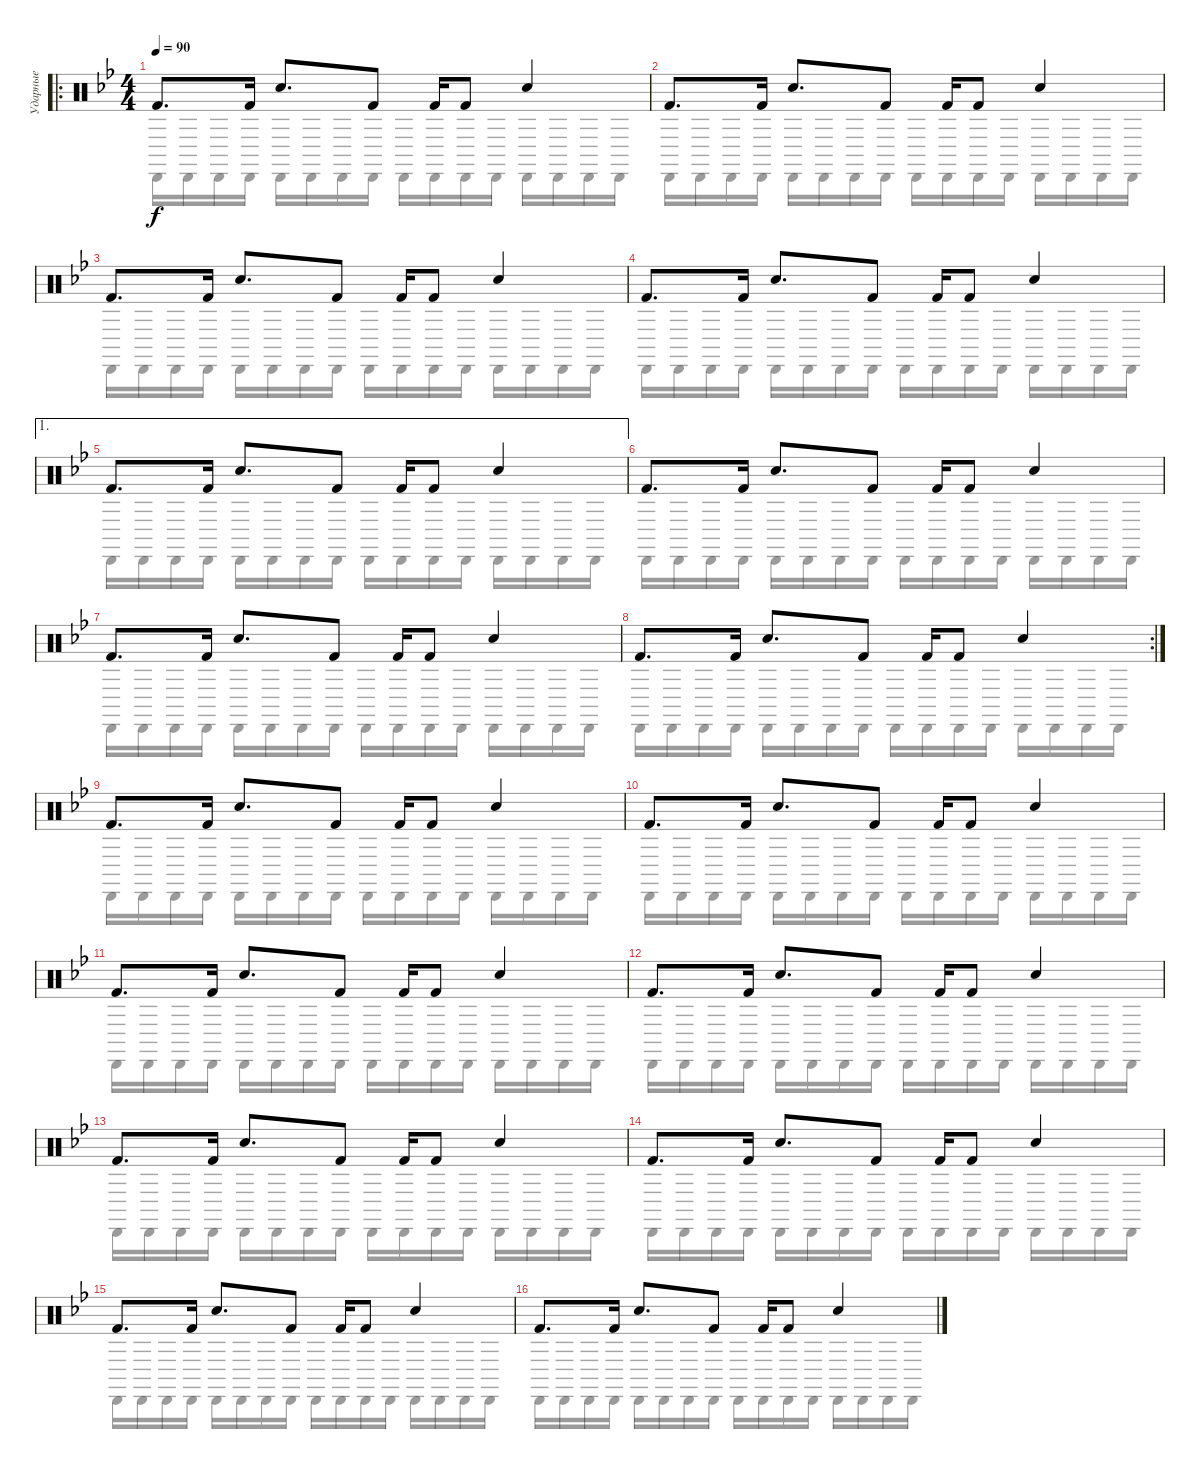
\track ("Ударные" "Ударные") {instrument percussion}
\staff {score}
\articulation defaults
\voice
\ro
\ts (4 4)
\tempo 90
\clef neutral
\ks bb "Kick (hit) 2".8{d dy f} "Kick (hit) 2".16 "Hand Clap (hit)".8{d} "Kick (hit) 2".8 "Kick (hit) 2".16 "Kick (hit) 2".8 "Hand Clap (hit)".4
|
"Kick (hit) 2".8{d} "Kick (hit) 2".16 "Hand Clap (hit)".8{d} "Kick (hit) 2".8 "Kick (hit) 2".16 "Kick (hit) 2".8 "Hand Clap (hit)".4 |
"Kick (hit) 2".8{d} "Kick (hit) 2".16 "Hand Clap (hit)".8{d} "Kick (hit) 2".8 "Kick (hit) 2".16 "Kick (hit) 2".8 "Hand Clap (hit)".4 |
"Kick (hit) 2".8{d} "Kick (hit) 2".16 "Hand Clap (hit)".8{d} "Kick (hit) 2".8 "Kick (hit) 2".16 "Kick (hit) 2".8 "Hand Clap (hit)".4 |
\ae 1 "Kick (hit) 2".8{d} "Kick (hit) 2".16 "Hand Clap (hit)".8{d} "Kick (hit) 2".8 "Kick (hit) 2".16 "Kick (hit) 2".8 "Hand Clap (hit)".4
|
"Kick (hit) 2".8{d} "Kick (hit) 2".16 "Hand Clap (hit)".8{d} "Kick (hit) 2".8 "Kick (hit) 2".16 "Kick (hit) 2".8 "Hand Clap (hit)".4 |
"Kick (hit) 2".8{d} "Kick (hit) 2".16 "Hand Clap (hit)".8{d} "Kick (hit) 2".8 "Kick (hit) 2".16 "Kick (hit) 2".8 "Hand Clap (hit)".4 |
\rc 2 "Kick (hit) 2".8{d} "Kick (hit) 2".16 "Hand Clap (hit)".8{d} "Kick (hit) 2".8 "Kick (hit) 2".16 "Kick (hit) 2".8 "Hand Clap (hit)".4
|
"Kick (hit) 2".8{d} "Kick (hit) 2".16 "Hand Clap (hit)".8{d} "Kick (hit) 2".8 "Kick (hit) 2".16 "Kick (hit) 2".8 "Hand Clap (hit)".4 |
"Kick (hit) 2".8{d} "Kick (hit) 2".16 "Hand Clap (hit)".8{d} "Kick (hit) 2".8 "Kick (hit) 2".16 "Kick (hit) 2".8 "Hand Clap (hit)".4 |
"Kick (hit) 2".8{d} "Kick (hit) 2".16 "Hand Clap (hit)".8{d} "Kick (hit) 2".8 "Kick (hit) 2".16 "Kick (hit) 2".8 "Hand Clap (hit)".4 |
"Kick (hit) 2".8{d} "Kick (hit) 2".16 "Hand Clap (hit)".8{d} "Kick (hit) 2".8 "Kick (hit) 2".16 "Kick (hit) 2".8 "Hand Clap (hit)".4 |
"Kick (hit) 2".8{d} "Kick (hit) 2".16 "Hand Clap (hit)".8{d} "Kick (hit) 2".8 "Kick (hit) 2".16 "Kick (hit) 2".8 "Hand Clap (hit)".4 |
"Kick (hit) 2".8{d} "Kick (hit) 2".16 "Hand Clap (hit)".8{d} "Kick (hit) 2".8 "Kick (hit) 2".16 "Kick (hit) 2".8 "Hand Clap (hit)".4 |
"Kick (hit) 2".8{d} "Kick (hit) 2".16 "Hand Clap (hit)".8{d} "Kick (hit) 2".8 "Kick (hit) 2".16 "Kick (hit) 2".8 "Hand Clap (hit)".4 |
"Kick (hit) 2".8{d} "Kick (hit) 2".16 "Hand Clap (hit)".8{d} "Kick (hit) 2".8 "Kick (hit) 2".16 "Kick (hit) 2".8 "Hand Clap (hit)".4
\voice
\clef neutral
\ottava regular
\simile none
\ks bb "Cabasa (hit)".16{dy f} "Cabasa (hit)".16 "Cabasa (hit)".16 "Cabasa (hit)".16 "Cabasa (hit)".16 "Cabasa (hit)".16 "Cabasa (hit)".16 "Cabasa (hit)".16 "Cabasa (hit)".16 "Cabasa (hit)".16 "Cabasa (hit)".16 "Cabasa (hit)".16 "Cabasa (hit)".16 "Cabasa (hit)".16 "Cabasa (hit)".16 "Cabasa (hit)".16
|
"Cabasa (hit)".16 "Cabasa (hit)".16 "Cabasa (hit)".16 "Cabasa (hit)".16 "Cabasa (hit)".16 "Cabasa (hit)".16 "Cabasa (hit)".16 "Cabasa (hit)".16 "Cabasa (hit)".16 "Cabasa (hit)".16 "Cabasa (hit)".16 "Cabasa (hit)".16 "Cabasa (hit)".16 "Cabasa (hit)".16 "Cabasa (hit)".16 "Cabasa (hit)".16 |
"Cabasa (hit)".16 "Cabasa (hit)".16 "Cabasa (hit)".16 "Cabasa (hit)".16 "Cabasa (hit)".16 "Cabasa (hit)".16 "Cabasa (hit)".16 "Cabasa (hit)".16 "Cabasa (hit)".16 "Cabasa (hit)".16 "Cabasa (hit)".16 "Cabasa (hit)".16 "Cabasa (hit)".16 "Cabasa (hit)".16 "Cabasa (hit)".16 "Cabasa (hit)".16 |
"Cabasa (hit)".16 "Cabasa (hit)".16 "Cabasa (hit)".16 "Cabasa (hit)".16 "Cabasa (hit)".16 "Cabasa (hit)".16 "Cabasa (hit)".16 "Cabasa (hit)".16 "Cabasa (hit)".16 "Cabasa (hit)".16 "Cabasa (hit)".16 "Cabasa (hit)".16 "Cabasa (hit)".16 "Cabasa (hit)".16 "Cabasa (hit)".16 "Cabasa (hit)".16 |
"Cabasa (hit)".16 "Cabasa (hit)".16 "Cabasa (hit)".16 "Cabasa (hit)".16 "Cabasa (hit)".16 "Cabasa (hit)".16 "Cabasa (hit)".16 "Cabasa (hit)".16 "Cabasa (hit)".16 "Cabasa (hit)".16 "Cabasa (hit)".16 "Cabasa (hit)".16 "Cabasa (hit)".16 "Cabasa (hit)".16 "Cabasa (hit)".16 "Cabasa (hit)".16 |
"Cabasa (hit)".16 "Cabasa (hit)".16 "Cabasa (hit)".16 "Cabasa (hit)".16 "Cabasa (hit)".16 "Cabasa (hit)".16 "Cabasa (hit)".16 "Cabasa (hit)".16 "Cabasa (hit)".16 "Cabasa (hit)".16 "Cabasa (hit)".16 "Cabasa (hit)".16 "Cabasa (hit)".16 "Cabasa (hit)".16 "Cabasa (hit)".16 "Cabasa (hit)".16 |
"Cabasa (hit)".16 "Cabasa (hit)".16 "Cabasa (hit)".16 "Cabasa (hit)".16 "Cabasa (hit)".16 "Cabasa (hit)".16 "Cabasa (hit)".16 "Cabasa (hit)".16 "Cabasa (hit)".16 "Cabasa (hit)".16 "Cabasa (hit)".16 "Cabasa (hit)".16 "Cabasa (hit)".16 "Cabasa (hit)".16 "Cabasa (hit)".16 "Cabasa (hit)".16 |
"Cabasa (hit)".16 "Cabasa (hit)".16 "Cabasa (hit)".16 "Cabasa (hit)".16 "Cabasa (hit)".16 "Cabasa (hit)".16 "Cabasa (hit)".16 "Cabasa (hit)".16 "Cabasa (hit)".16 "Cabasa (hit)".16 "Cabasa (hit)".16 "Cabasa (hit)".16 "Cabasa (hit)".16 "Cabasa (hit)".16 "Cabasa (hit)".16 "Cabasa (hit)".16 |
"Cabasa (hit)".16 "Cabasa (hit)".16 "Cabasa (hit)".16 "Cabasa (hit)".16 "Cabasa (hit)".16 "Cabasa (hit)".16 "Cabasa (hit)".16 "Cabasa (hit)".16 "Cabasa (hit)".16 "Cabasa (hit)".16 "Cabasa (hit)".16 "Cabasa (hit)".16 "Cabasa (hit)".16 "Cabasa (hit)".16 "Cabasa (hit)".16 "Cabasa (hit)".16 |
"Cabasa (hit)".16 "Cabasa (hit)".16 "Cabasa (hit)".16 "Cabasa (hit)".16 "Cabasa (hit)".16 "Cabasa (hit)".16 "Cabasa (hit)".16 "Cabasa (hit)".16 "Cabasa (hit)".16 "Cabasa (hit)".16 "Cabasa (hit)".16 "Cabasa (hit)".16 "Cabasa (hit)".16 "Cabasa (hit)".16 "Cabasa (hit)".16 "Cabasa (hit)".16 |
"Cabasa (hit)".16 "Cabasa (hit)".16 "Cabasa (hit)".16 "Cabasa (hit)".16 "Cabasa (hit)".16 "Cabasa (hit)".16 "Cabasa (hit)".16 "Cabasa (hit)".16 "Cabasa (hit)".16 "Cabasa (hit)".16 "Cabasa (hit)".16 "Cabasa (hit)".16 "Cabasa (hit)".16 "Cabasa (hit)".16 "Cabasa (hit)".16 "Cabasa (hit)".16 |
"Cabasa (hit)".16 "Cabasa (hit)".16 "Cabasa (hit)".16 "Cabasa (hit)".16 "Cabasa (hit)".16 "Cabasa (hit)".16 "Cabasa (hit)".16 "Cabasa (hit)".16 "Cabasa (hit)".16 "Cabasa (hit)".16 "Cabasa (hit)".16 "Cabasa (hit)".16 "Cabasa (hit)".16 "Cabasa (hit)".16 "Cabasa (hit)".16 "Cabasa (hit)".16 |
"Cabasa (hit)".16 "Cabasa (hit)".16 "Cabasa (hit)".16 "Cabasa (hit)".16 "Cabasa (hit)".16 "Cabasa (hit)".16 "Cabasa (hit)".16 "Cabasa (hit)".16 "Cabasa (hit)".16 "Cabasa (hit)".16 "Cabasa (hit)".16 "Cabasa (hit)".16 "Cabasa (hit)".16 "Cabasa (hit)".16 "Cabasa (hit)".16 "Cabasa (hit)".16 |
"Cabasa (hit)".16 "Cabasa (hit)".16 "Cabasa (hit)".16 "Cabasa (hit)".16 "Cabasa (hit)".16 "Cabasa (hit)".16 "Cabasa (hit)".16 "Cabasa (hit)".16 "Cabasa (hit)".16 "Cabasa (hit)".16 "Cabasa (hit)".16 "Cabasa (hit)".16 "Cabasa (hit)".16 "Cabasa (hit)".16 "Cabasa (hit)".16 "Cabasa (hit)".16 |
"Cabasa (hit)".16 "Cabasa (hit)".16 "Cabasa (hit)".16 "Cabasa (hit)".16 "Cabasa (hit)".16 "Cabasa (hit)".16 "Cabasa (hit)".16 "Cabasa (hit)".16 "Cabasa (hit)".16 "Cabasa (hit)".16 "Cabasa (hit)".16 "Cabasa (hit)".16 "Cabasa (hit)".16 "Cabasa (hit)".16 "Cabasa (hit)".16 "Cabasa (hit)".16 |
"Cabasa (hit)".16 "Cabasa (hit)".16 "Cabasa (hit)".16 "Cabasa (hit)".16 "Cabasa (hit)".16 "Cabasa (hit)".16 "Cabasa (hit)".16 "Cabasa (hit)".16 "Cabasa (hit)".16 "Cabasa (hit)".16 "Cabasa (hit)".16 "Cabasa (hit)".16 "Cabasa (hit)".16 "Cabasa (hit)".16 "Cabasa (hit)".16 "Cabasa (hit)".16
